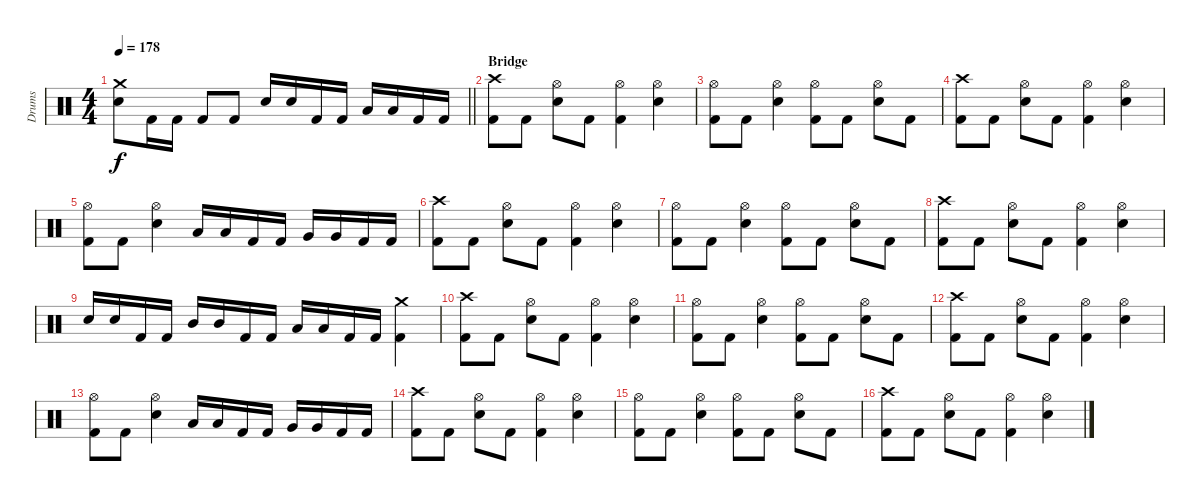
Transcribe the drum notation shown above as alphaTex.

\track ("Drums" "Drums") {instrument percussion}
\staff {score}
\articulation defaults
\ts (4 4)
\tempo 178
\clef neutral
\barLineRight lightlight
\ks c
("Crash medium (hit)" "Snare (hit)"{t}).8{dy f} "Kick (hit) 2".16 "Kick (hit) 2".16 "Kick (hit) 2".8 "Kick (hit) 2".8 "Snare (hit) 2".16 "Snare (hit) 2".16 "Kick (hit) 2".16 "Kick (hit) 2".16 "Low Tom (hit)".16 "Low Tom (hit)".16 "Kick (hit) 2".16 "Kick (hit) 2".16 |
\section ("" "Bridge")
("Crash high (hit)" "Kick (hit) 2").8 "Kick (hit) 2".8 ("Hi-Hat (open)" "Snare (hit) 2").8 "Kick (hit) 2".8 ("Hi-Hat (open)" "Kick (hit) 2").4 ("Hi-Hat (open)" "Snare (hit) 2").4 |
("Hi-Hat (open)" "Kick (hit) 2").8 "Kick (hit) 2".8 ("Hi-Hat (open)" "Snare (hit) 2").4 ("Hi-Hat (open)" "Kick (hit) 2").8 "Kick (hit) 2".8 ("Hi-Hat (open)" "Snare (hit) 2").8 "Kick (hit) 2".8 |
("Crash high (hit)" "Kick (hit) 2").8 "Kick (hit) 2".8 ("Hi-Hat (open)" "Snare (hit) 2").8 "Kick (hit) 2".8 ("Hi-Hat (open)" "Kick (hit) 2").4 ("Hi-Hat (open)" "Snare (hit) 2").4 |
("Hi-Hat (open)" "Kick (hit) 2").8 "Kick (hit) 2".8 ("Hi-Hat (open)" "Snare (hit) 2").4 "Low Tom (hit)".16 "Low Tom (hit)".16 "Kick (hit) 2".16 "Kick (hit) 2".16 "Very Low Tom (hit)".16 "Very Low Tom (hit)".16 "Kick (hit) 2".16 "Kick (hit) 2".16 |
("Crash high (hit)" "Kick (hit) 2").8 "Kick (hit) 2".8 ("Hi-Hat (open)" "Snare (hit) 2").8 "Kick (hit) 2".8 ("Hi-Hat (open)" "Kick (hit) 2").4 ("Hi-Hat (open)" "Snare (hit) 2").4 |
("Hi-Hat (open)" "Kick (hit) 2").8 "Kick (hit) 2".8 ("Hi-Hat (open)" "Snare (hit) 2").4 ("Hi-Hat (open)" "Kick (hit) 2").8 "Kick (hit) 2".8 ("Hi-Hat (open)" "Snare (hit) 2").8 "Kick (hit) 2".8 |
("Crash high (hit)" "Kick (hit) 2").8 "Kick (hit) 2".8 ("Hi-Hat (open)" "Snare (hit) 2").8 "Kick (hit) 2".8 ("Hi-Hat (open)" "Kick (hit) 2").4 ("Hi-Hat (open)" "Snare (hit) 2").4 |
"Snare (hit) 2".16 "Snare (hit) 2".16 "Kick (hit) 2".16 "Kick (hit) 2".16 "Mid Tom (hit)".16 "Mid Tom (hit)".16 "Kick (hit) 2".16 "Kick (hit) 2".16 "Low Tom (hit)".16 "Low Tom (hit)".16 "Kick (hit) 2".16 "Kick (hit) 2".16 ("Crash medium (hit)" "Kick (hit) 2").4 |
("Crash high (hit)" "Kick (hit) 2").8 "Kick (hit) 2".8 ("Hi-Hat (open)" "Snare (hit) 2").8 "Kick (hit) 2".8 ("Hi-Hat (open)" "Kick (hit) 2").4 ("Hi-Hat (open)" "Snare (hit) 2").4 |
("Hi-Hat (open)" "Kick (hit) 2").8 "Kick (hit) 2".8 ("Hi-Hat (open)" "Snare (hit) 2").4 ("Hi-Hat (open)" "Kick (hit) 2").8 "Kick (hit) 2".8 ("Hi-Hat (open)" "Snare (hit) 2").8 "Kick (hit) 2".8 |
("Crash high (hit)" "Kick (hit) 2").8 "Kick (hit) 2".8 ("Hi-Hat (open)" "Snare (hit) 2").8 "Kick (hit) 2".8 ("Hi-Hat (open)" "Kick (hit) 2").4 ("Hi-Hat (open)" "Snare (hit) 2").4 |
("Hi-Hat (open)" "Kick (hit) 2").8 "Kick (hit) 2".8 ("Hi-Hat (open)" "Snare (hit) 2").4 "Low Tom (hit)".16 "Low Tom (hit)".16 "Kick (hit) 2".16 "Kick (hit) 2".16 "Very Low Tom (hit)".16 "Very Low Tom (hit)".16 "Kick (hit) 2".16 "Kick (hit) 2".16 |
("Crash high (hit)" "Kick (hit) 2").8 "Kick (hit) 2".8 ("Hi-Hat (open)" "Snare (hit) 2").8 "Kick (hit) 2".8 ("Hi-Hat (open)" "Kick (hit) 2").4 ("Hi-Hat (open)" "Snare (hit) 2").4 |
("Hi-Hat (open)" "Kick (hit) 2").8 "Kick (hit) 2".8 ("Hi-Hat (open)" "Snare (hit) 2").4 ("Hi-Hat (open)" "Kick (hit) 2").8 "Kick (hit) 2".8 ("Hi-Hat (open)" "Snare (hit) 2").8 "Kick (hit) 2".8 |
("Crash high (hit)" "Kick (hit) 2").8 "Kick (hit) 2".8 ("Hi-Hat (open)" "Snare (hit) 2").8 "Kick (hit) 2".8 ("Hi-Hat (open)" "Kick (hit) 2").4 ("Hi-Hat (open)" "Snare (hit) 2").4
